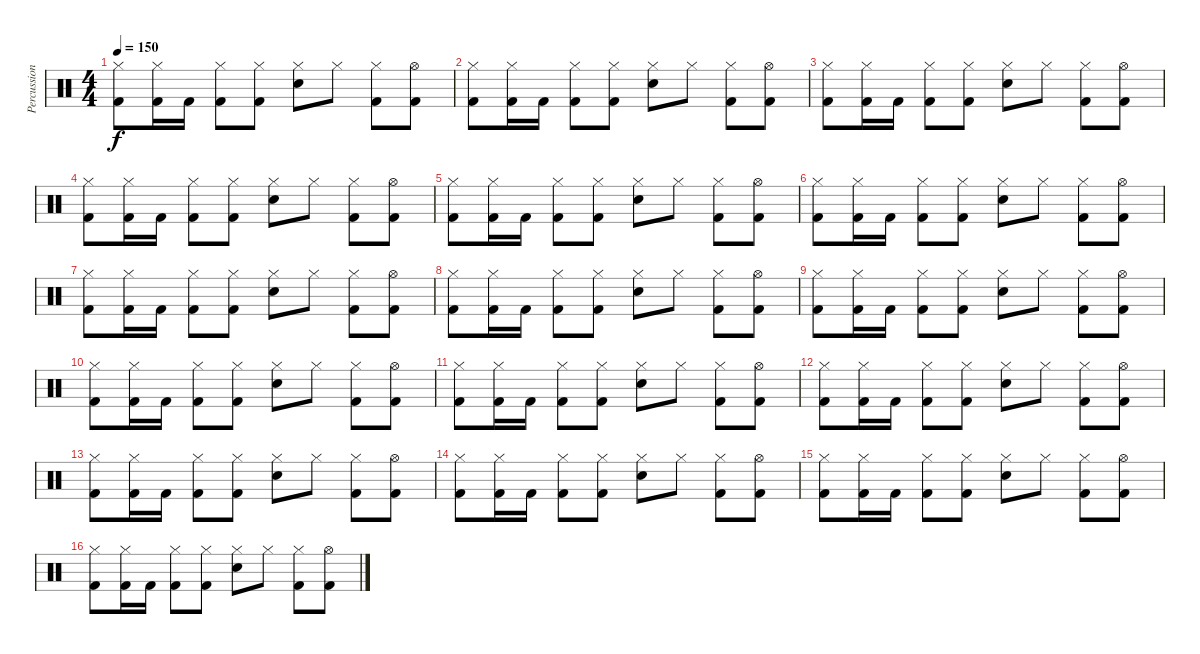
\track ("Percussions" "Percussion") {instrument percussion}
\staff {score}
\articulation defaults
\ts (4 4)
\tempo 150
\clef neutral
\ks c
("Hi-Hat (closed)" "Kick (hit) 2").8{dy f} ("Hi-Hat (closed)" "Kick (hit) 2").16 "Kick (hit) 2".16 ("Hi-Hat (closed)" "Kick (hit) 2").8 ("Hi-Hat (closed)" "Kick (hit) 2").8 ("Hi-Hat (closed)" "Snare (hit) 2").8 "Hi-Hat (closed)".8 ("Hi-Hat (closed)" "Kick (hit) 2").8 ("Hi-Hat (open)" "Kick (hit) 2").8 |
("Hi-Hat (closed)" "Kick (hit) 2").8 ("Hi-Hat (closed)" "Kick (hit) 2").16 "Kick (hit) 2".16 ("Hi-Hat (closed)" "Kick (hit) 2").8 ("Hi-Hat (closed)" "Kick (hit) 2").8 ("Hi-Hat (closed)" "Snare (hit) 2").8 "Hi-Hat (closed)".8 ("Hi-Hat (closed)" "Kick (hit) 2").8 ("Hi-Hat (open)" "Kick (hit) 2").8 |
("Hi-Hat (closed)" "Kick (hit) 2").8 ("Hi-Hat (closed)" "Kick (hit) 2").16 "Kick (hit) 2".16 ("Hi-Hat (closed)" "Kick (hit) 2").8 ("Hi-Hat (closed)" "Kick (hit) 2").8 ("Hi-Hat (closed)" "Snare (hit) 2").8 "Hi-Hat (closed)".8 ("Hi-Hat (closed)" "Kick (hit) 2").8 ("Hi-Hat (open)" "Kick (hit) 2").8 |
("Hi-Hat (closed)" "Kick (hit) 2").8 ("Hi-Hat (closed)" "Kick (hit) 2").16 "Kick (hit) 2".16 ("Hi-Hat (closed)" "Kick (hit) 2").8 ("Hi-Hat (closed)" "Kick (hit) 2").8 ("Hi-Hat (closed)" "Snare (hit) 2").8 "Hi-Hat (closed)".8 ("Hi-Hat (closed)" "Kick (hit) 2").8 ("Hi-Hat (open)" "Kick (hit) 2").8 |
("Hi-Hat (closed)" "Kick (hit) 2").8 ("Hi-Hat (closed)" "Kick (hit) 2").16 "Kick (hit) 2".16 ("Hi-Hat (closed)" "Kick (hit) 2").8 ("Hi-Hat (closed)" "Kick (hit) 2").8 ("Hi-Hat (closed)" "Snare (hit) 2").8 "Hi-Hat (closed)".8 ("Hi-Hat (closed)" "Kick (hit) 2").8 ("Hi-Hat (open)" "Kick (hit) 2").8 |
("Hi-Hat (closed)" "Kick (hit) 2").8 ("Hi-Hat (closed)" "Kick (hit) 2").16 "Kick (hit) 2".16 ("Hi-Hat (closed)" "Kick (hit) 2").8 ("Hi-Hat (closed)" "Kick (hit) 2").8 ("Hi-Hat (closed)" "Snare (hit) 2").8 "Hi-Hat (closed)".8 ("Hi-Hat (closed)" "Kick (hit) 2").8 ("Hi-Hat (open)" "Kick (hit) 2").8 |
("Hi-Hat (closed)" "Kick (hit) 2").8 ("Hi-Hat (closed)" "Kick (hit) 2").16 "Kick (hit) 2".16 ("Hi-Hat (closed)" "Kick (hit) 2").8 ("Hi-Hat (closed)" "Kick (hit) 2").8 ("Hi-Hat (closed)" "Snare (hit) 2").8 "Hi-Hat (closed)".8 ("Hi-Hat (closed)" "Kick (hit) 2").8 ("Hi-Hat (open)" "Kick (hit) 2").8 |
("Hi-Hat (closed)" "Kick (hit) 2").8 ("Hi-Hat (closed)" "Kick (hit) 2").16 "Kick (hit) 2".16 ("Hi-Hat (closed)" "Kick (hit) 2").8 ("Hi-Hat (closed)" "Kick (hit) 2").8 ("Hi-Hat (closed)" "Snare (hit) 2").8 "Hi-Hat (closed)".8 ("Hi-Hat (closed)" "Kick (hit) 2").8 ("Hi-Hat (open)" "Kick (hit) 2").8 |
("Hi-Hat (closed)" "Kick (hit) 2").8{volume 6} ("Hi-Hat (closed)" "Kick (hit) 2").16 "Kick (hit) 2".16 ("Hi-Hat (closed)" "Kick (hit) 2").8 ("Hi-Hat (closed)" "Kick (hit) 2").8 ("Hi-Hat (closed)" "Snare (hit) 2").8 "Hi-Hat (closed)".8 ("Hi-Hat (closed)" "Kick (hit) 2").8 ("Hi-Hat (open)" "Kick (hit) 2").8 |
("Hi-Hat (closed)" "Kick (hit) 2").8 ("Hi-Hat (closed)" "Kick (hit) 2").16 "Kick (hit) 2".16 ("Hi-Hat (closed)" "Kick (hit) 2").8 ("Hi-Hat (closed)" "Kick (hit) 2").8 ("Hi-Hat (closed)" "Snare (hit) 2").8 "Hi-Hat (closed)".8 ("Hi-Hat (closed)" "Kick (hit) 2").8 ("Hi-Hat (open)" "Kick (hit) 2").8 |
("Hi-Hat (closed)" "Kick (hit) 2").8 ("Hi-Hat (closed)" "Kick (hit) 2").16 "Kick (hit) 2".16 ("Hi-Hat (closed)" "Kick (hit) 2").8 ("Hi-Hat (closed)" "Kick (hit) 2").8 ("Hi-Hat (closed)" "Snare (hit) 2").8 "Hi-Hat (closed)".8 ("Hi-Hat (closed)" "Kick (hit) 2").8 ("Hi-Hat (open)" "Kick (hit) 2").8 |
("Hi-Hat (closed)" "Kick (hit) 2").8 ("Hi-Hat (closed)" "Kick (hit) 2").16 "Kick (hit) 2".16 ("Hi-Hat (closed)" "Kick (hit) 2").8 ("Hi-Hat (closed)" "Kick (hit) 2").8 ("Hi-Hat (closed)" "Snare (hit) 2").8 "Hi-Hat (closed)".8 ("Hi-Hat (closed)" "Kick (hit) 2").8 ("Hi-Hat (open)" "Kick (hit) 2").8 |
("Hi-Hat (closed)" "Kick (hit) 2").8{volume 0} ("Hi-Hat (closed)" "Kick (hit) 2").16 "Kick (hit) 2".16 ("Hi-Hat (closed)" "Kick (hit) 2").8 ("Hi-Hat (closed)" "Kick (hit) 2").8 ("Hi-Hat (closed)" "Snare (hit) 2").8 "Hi-Hat (closed)".8 ("Hi-Hat (closed)" "Kick (hit) 2").8 ("Hi-Hat (open)" "Kick (hit) 2").8 |
("Hi-Hat (closed)" "Kick (hit) 2").8 ("Hi-Hat (closed)" "Kick (hit) 2").16 "Kick (hit) 2".16 ("Hi-Hat (closed)" "Kick (hit) 2").8 ("Hi-Hat (closed)" "Kick (hit) 2").8 ("Hi-Hat (closed)" "Snare (hit) 2").8 "Hi-Hat (closed)".8 ("Hi-Hat (closed)" "Kick (hit) 2").8 ("Hi-Hat (open)" "Kick (hit) 2").8 |
("Hi-Hat (closed)" "Kick (hit) 2").8 ("Hi-Hat (closed)" "Kick (hit) 2").16 "Kick (hit) 2".16 ("Hi-Hat (closed)" "Kick (hit) 2").8 ("Hi-Hat (closed)" "Kick (hit) 2").8 ("Hi-Hat (closed)" "Snare (hit) 2").8 "Hi-Hat (closed)".8 ("Hi-Hat (closed)" "Kick (hit) 2").8 ("Hi-Hat (open)" "Kick (hit) 2").8 |
("Hi-Hat (closed)" "Kick (hit) 2").8 ("Hi-Hat (closed)" "Kick (hit) 2").16 "Kick (hit) 2".16 ("Hi-Hat (closed)" "Kick (hit) 2").8 ("Hi-Hat (closed)" "Kick (hit) 2").8 ("Hi-Hat (closed)" "Snare (hit) 2").8 "Hi-Hat (closed)".8 ("Hi-Hat (closed)" "Kick (hit) 2").8 ("Hi-Hat (open)" "Kick (hit) 2").8
